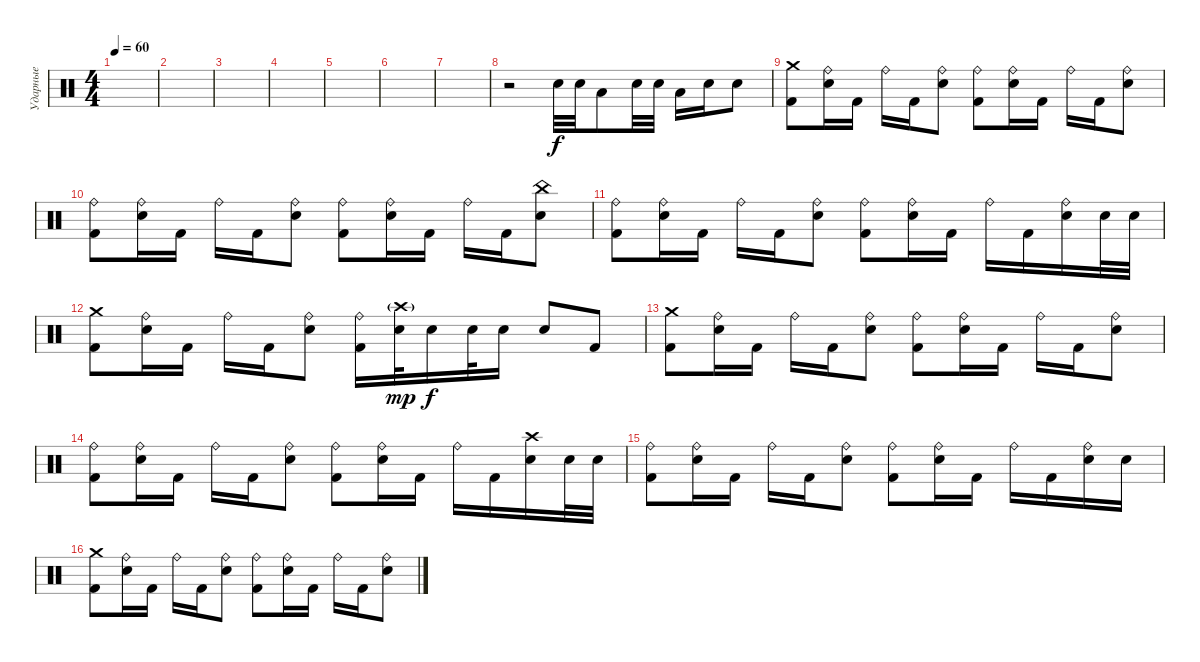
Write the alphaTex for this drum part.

\track ("Ударные" "Ударные") {instrument percussion}
\staff {score}
\articulation defaults
\ts (4 4)
\tempo 60
\clef neutral
\ks c
|
|
|
|
|
|
|
r.2 "Snare (hit) 2".32 "Snare (hit) 2".32 "Low Tom (hit)".8 "Snare (hit) 2".32 "Snare (hit) 2".32 "Low Tom (hit)".16 "Snare (hit) 2".16 "Snare (hit) 2".8 |
("Crash medium (hit)" "Kick (hit) 2").8 ("Snare (hit) 2" "Ride (bell)").16 "Kick (hit) 2".16 "Ride (bell)".16 "Kick (hit) 2".16 ("Snare (hit) 2" "Ride (bell)").8 ("Ride (bell)" "Kick (hit) 2").8 ("Snare (hit) 2" "Ride (bell)").16 "Kick (hit) 2".16 "Ride (bell)".16 "Kick (hit) 2".16 ("Snare (hit) 2" "Ride (bell)").8 |
("Ride (bell)" "Kick (hit) 2").8 ("Snare (hit) 2" "Ride (bell)").16 "Kick (hit) 2".16 "Ride (bell)".16 "Kick (hit) 2".16 ("Snare (hit) 2" "Ride (bell)").8 ("Ride (bell)" "Kick (hit) 2").8 ("Snare (hit) 2" "Ride (bell)").16 "Kick (hit) 2".16 "Ride (bell)".16 "Kick (hit) 2".16 ("Snare (hit) 2" "China (hit)").8 |
("Ride (bell)" "Kick (hit) 2").8 ("Snare (hit) 2" "Ride (bell)").16 "Kick (hit) 2".16 "Ride (bell)".16 "Kick (hit) 2".16 ("Snare (hit) 2" "Ride (bell)").8 ("Ride (bell)" "Kick (hit) 2").8 ("Snare (hit) 2" "Ride (bell)").16 "Kick (hit) 2".16 "Ride (bell)".16 "Kick (hit) 2".16 ("Snare (hit) 2" "Ride (bell)").16 "Snare (hit) 2".32 "Snare (hit) 2".32 |
("Crash medium (hit)" "Kick (hit) 2").8 ("Snare (hit) 2" "Ride (bell)").16 "Kick (hit) 2".16 "Ride (bell)".16 "Kick (hit) 2".16 ("Snare (hit) 2" "Ride (bell)").8 ("Ride (bell)" "Kick (hit) 2").16 ("Crash high (hit)"{g} "Snare (hit) 2").32{dy mp} "Snare (hit) 2".16{dy f} "Snare (hit) 2".32 "Snare (hit) 2".16 "Snare (hit) 2".8 "Kick (hit) 2".8 |
("Crash medium (hit)" "Kick (hit) 2").8 ("Snare (hit) 2" "Ride (bell)").16 "Kick (hit) 2".16 "Ride (bell)".16 "Kick (hit) 2".16 ("Snare (hit) 2" "Ride (bell)").8 ("Ride (bell)" "Kick (hit) 2").8 ("Snare (hit) 2" "Ride (bell)").16 "Kick (hit) 2".16 "Ride (bell)".16 "Kick (hit) 2".16 ("Snare (hit) 2" "Ride (bell)").8 |
("Ride (bell)" "Kick (hit) 2").8 ("Snare (hit) 2" "Ride (bell)").16 "Kick (hit) 2".16 "Ride (bell)".16 "Kick (hit) 2".16 ("Snare (hit) 2" "Ride (bell)").8 ("Ride (bell)" "Kick (hit) 2").8 ("Snare (hit) 2" "Ride (bell)").16 "Kick (hit) 2".16 "Ride (bell)".16 "Kick (hit) 2".16 ("Snare (hit) 2" "Crash high (hit)").16 "Snare (hit) 2".32 "Snare (hit) 2".32 |
("Ride (bell)" "Kick (hit) 2").8 ("Snare (hit) 2" "Ride (bell)").16 "Kick (hit) 2".16 "Ride (bell)".16 "Kick (hit) 2".16 ("Snare (hit) 2" "Ride (bell)").8 ("Ride (bell)" "Kick (hit) 2").8 ("Snare (hit) 2" "Ride (bell)").16 "Kick (hit) 2".16 "Ride (bell)".16 "Kick (hit) 2".16 ("Snare (hit) 2" "Ride (bell)").16 "Snare (hit) 2".16 |
("Crash medium (hit)" "Kick (hit) 2").8 ("Snare (hit) 2" "Ride (bell)").16 "Kick (hit) 2".16 "Ride (bell)".16 "Kick (hit) 2".16 ("Snare (hit) 2" "Ride (bell)").8 ("Ride (bell)" "Kick (hit) 2").8 ("Snare (hit) 2" "Ride (bell)").16 "Kick (hit) 2".16 "Ride (bell)".16 "Kick (hit) 2".16 ("Snare (hit) 2" "Ride (bell)").8
